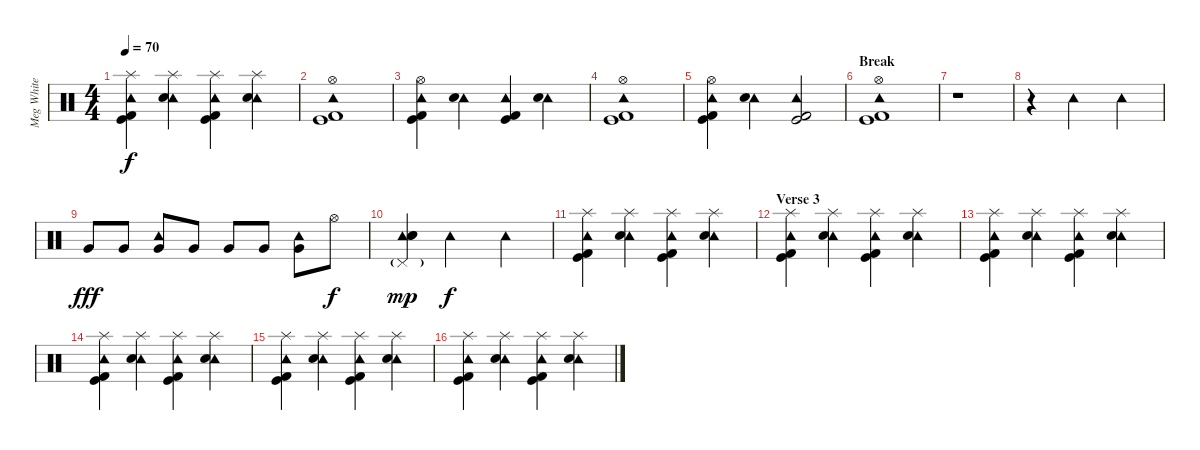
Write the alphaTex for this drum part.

\track ("Meg White (Drums)" "Meg White ") {instrument percussion}
\staff {score}
\articulation defaults
\ts (4 4)
\tempo 70
\clef neutral
\ks c
("Tambourine (hit)" "Kick (hit)" "Kick (hit) 2" "Splash (hit)").4{dy f} ("Tambourine (hit)" "Electric Snare (hit)" "Splash (hit)").4 ("Tambourine (hit)" "Kick (hit)" "Kick (hit) 2" "Splash (hit)").4 ("Tambourine (hit)" "Electric Snare (hit)" "Splash (hit)").4 |
("Tambourine (hit)" "Kick (hit)" "Kick (hit) 2" "Hi-Hat (open)").1 |
("Tambourine (hit)" "Kick (hit)" "Kick (hit) 2" "Hi-Hat (open)").4 ("Tambourine (hit)" "Electric Snare (hit)").4 ("Tambourine (hit)" "Kick (hit)" "Kick (hit) 2").4 ("Tambourine (hit)" "Electric Snare (hit)").4 |
("Tambourine (hit)" "Kick (hit)" "Kick (hit) 2" "Hi-Hat (open)").1 |
("Tambourine (hit)" "Kick (hit)" "Kick (hit) 2" "Hi-Hat (open)").4 ("Tambourine (hit)" "Electric Snare (hit)").4 ("Tambourine (hit)" "Kick (hit)" "Kick (hit) 2").2 |
\section ("" "Break")
("Tambourine (hit)" "Kick (hit)" "Kick (hit) 2" "Hi-Hat (open)").1 |
r.1 |
r.4 "Tambourine (hit)".2 "Tambourine (hit)".4 |
"Very Low Tom (hit)".8{dy fff} "Very Low Tom (hit)".8 ("Tambourine (hit)" "Very Low Tom (hit)").8 "Very Low Tom (hit)".8 "Very Low Tom (hit)".8 "Very Low Tom (hit)".8 ("Tambourine (hit)" "Very Low Tom (hit)").8 "Hi-Hat (open)".8{dy f} |
("Tambourine (hit)" "Electric Snare (hit)" "Snare (hit) 2" "Pedal Hi-Hat (hit)"{g}).4{dy mp} "Tambourine (hit)".2{dy f} "Tambourine (hit)".4 |
("Tambourine (hit)" "Kick (hit)" "Kick (hit) 2" "Splash (hit)").4 ("Tambourine (hit)" "Electric Snare (hit)" "Splash (hit)").4 ("Tambourine (hit)" "Kick (hit)" "Kick (hit) 2" "Splash (hit)").4 ("Tambourine (hit)" "Electric Snare (hit)" "Splash (hit)").4 |
\section ("" "Verse 3")
("Tambourine (hit)" "Kick (hit)" "Kick (hit) 2" "Splash (hit)").4 ("Tambourine (hit)" "Electric Snare (hit)" "Splash (hit)").4 ("Tambourine (hit)" "Kick (hit)" "Kick (hit) 2" "Splash (hit)").4 ("Tambourine (hit)" "Electric Snare (hit)" "Splash (hit)").4 |
("Tambourine (hit)" "Kick (hit)" "Kick (hit) 2" "Splash (hit)").4 ("Tambourine (hit)" "Electric Snare (hit)" "Splash (hit)").4 ("Tambourine (hit)" "Kick (hit)" "Kick (hit) 2" "Splash (hit)").4 ("Tambourine (hit)" "Electric Snare (hit)" "Splash (hit)").4 |
("Tambourine (hit)" "Kick (hit)" "Kick (hit) 2" "Splash (hit)").4 ("Tambourine (hit)" "Electric Snare (hit)" "Splash (hit)").4 ("Tambourine (hit)" "Kick (hit)" "Kick (hit) 2" "Splash (hit)").4 ("Tambourine (hit)" "Electric Snare (hit)" "Splash (hit)").4 |
("Tambourine (hit)" "Kick (hit)" "Kick (hit) 2" "Splash (hit)").4 ("Tambourine (hit)" "Electric Snare (hit)" "Splash (hit)").4 ("Tambourine (hit)" "Kick (hit)" "Kick (hit) 2" "Splash (hit)").4 ("Tambourine (hit)" "Electric Snare (hit)" "Splash (hit)").4 |
("Tambourine (hit)" "Kick (hit)" "Kick (hit) 2" "Splash (hit)").4 ("Tambourine (hit)" "Electric Snare (hit)" "Splash (hit)").4 ("Tambourine (hit)" "Kick (hit)" "Kick (hit) 2" "Splash (hit)").4 ("Tambourine (hit)" "Electric Snare (hit)" "Splash (hit)").4
